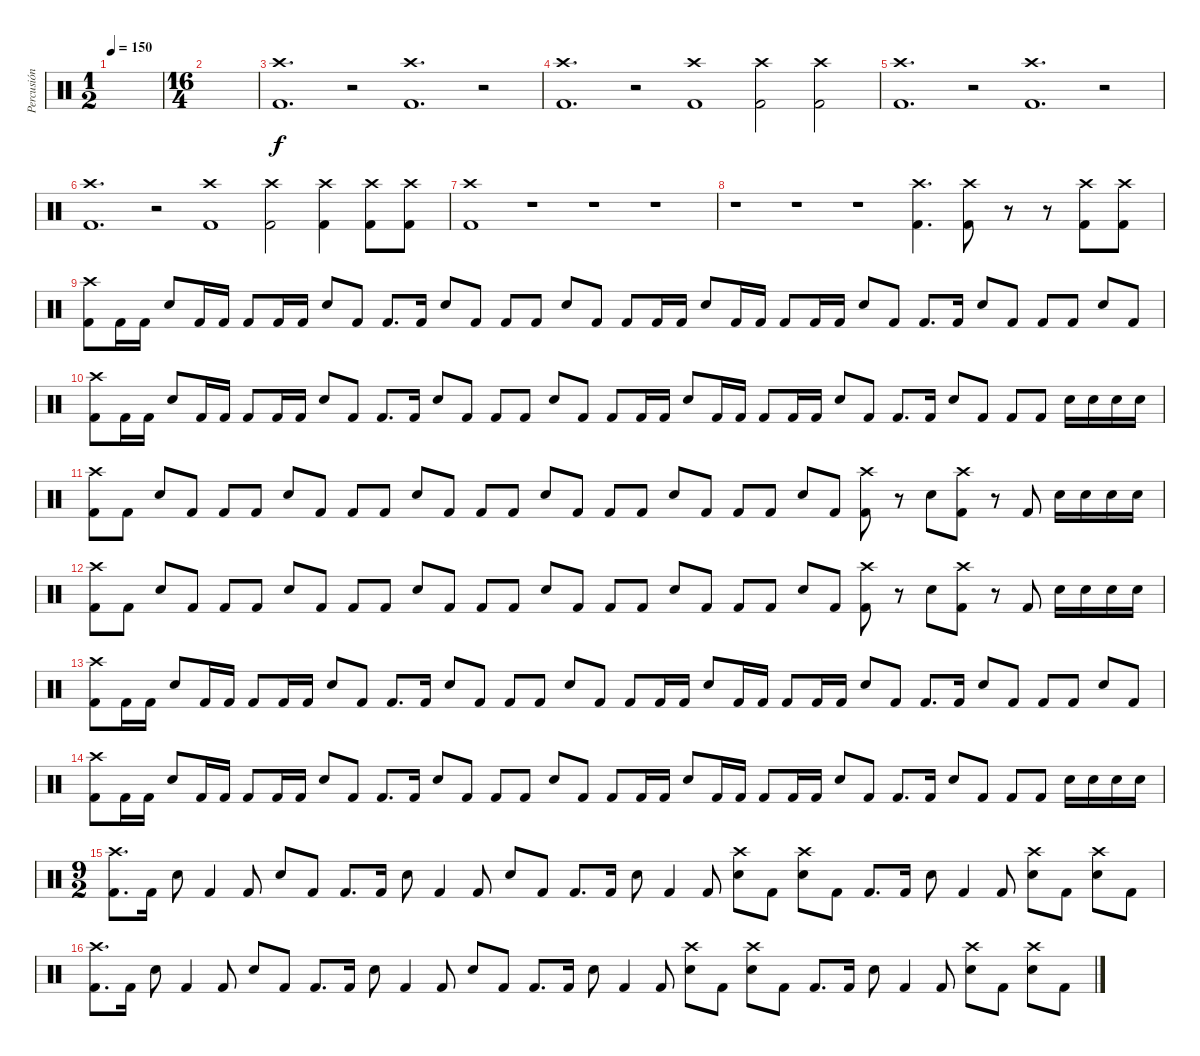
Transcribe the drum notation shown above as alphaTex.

\track ("Percusión" "Percusión") {instrument percussion bank 10}
\staff {score}
\articulation defaults
\ts (1 2)
\tempo 150
\clef neutral
\ks c
|
\ts (16 4)
|
("Kick (hit) 2" "Crash high (hit)").1{d} r.2 ("Kick (hit) 2" "Crash high (hit)").1{d} r.2 |
("Kick (hit) 2" "Crash high (hit)").1{d} r.2 ("Kick (hit) 2" "Crash high (hit)").1 ("Kick (hit) 2" "Crash high (hit)").2 ("Kick (hit) 2" "Crash high (hit)").2 |
("Kick (hit) 2" "Crash high (hit)").1{d} r.2 ("Kick (hit) 2" "Crash high (hit)").1{d} r.2 |
("Kick (hit) 2" "Crash high (hit)").1{d} r.2 ("Kick (hit) 2" "Crash high (hit)").1 ("Kick (hit) 2" "Crash high (hit)").2 ("Kick (hit) 2" "Crash high (hit)").4 ("Kick (hit) 2" "Crash high (hit)").8 ("Kick (hit) 2" "Crash high (hit)").8 |
("Kick (hit) 2" "Crash high (hit)").1 r.1 r.1 r.1 |
r.1 r.1 r.1 ("Kick (hit) 2" "Crash high (hit)").4{d} ("Kick (hit) 2" "Crash high (hit)").8 r.8 r.8 ("Kick (hit) 2" "Crash high (hit)").8 ("Kick (hit) 2" "Crash high (hit)").8 |
("Kick (hit) 2" "Crash high (hit)").8 "Kick (hit) 2".16 "Kick (hit) 2".16 "Snare (hit) 2".8 "Kick (hit) 2".16 "Kick (hit) 2".16 "Kick (hit) 2".8 "Kick (hit) 2".16 "Kick (hit) 2".16 "Snare (hit) 2".8 "Kick (hit) 2".8 "Kick (hit) 2".8{d} "Kick (hit) 2".16 "Snare (hit) 2".8 "Kick (hit) 2".8 "Kick (hit) 2".8 "Kick (hit) 2".8 "Snare (hit) 2".8 "Kick (hit) 2".8 "Kick (hit) 2".8 "Kick (hit) 2".16 "Kick (hit) 2".16 "Snare (hit) 2".8 "Kick (hit) 2".16 "Kick (hit) 2".16 "Kick (hit) 2".8 "Kick (hit) 2".16 "Kick (hit) 2".16 "Snare (hit) 2".8 "Kick (hit) 2".8 "Kick (hit) 2".8{d} "Kick (hit) 2".16 "Snare (hit) 2".8 "Kick (hit) 2".8 "Kick (hit) 2".8 "Kick (hit) 2".8 "Snare (hit) 2".8 "Kick (hit) 2".8 |
("Kick (hit) 2" "Crash high (hit)").8 "Kick (hit) 2".16 "Kick (hit) 2".16 "Snare (hit) 2".8 "Kick (hit) 2".16 "Kick (hit) 2".16 "Kick (hit) 2".8 "Kick (hit) 2".16 "Kick (hit) 2".16 "Snare (hit) 2".8 "Kick (hit) 2".8 "Kick (hit) 2".8{d} "Kick (hit) 2".16 "Snare (hit) 2".8 "Kick (hit) 2".8 "Kick (hit) 2".8 "Kick (hit) 2".8 "Snare (hit) 2".8 "Kick (hit) 2".8 "Kick (hit) 2".8 "Kick (hit) 2".16 "Kick (hit) 2".16 "Snare (hit) 2".8 "Kick (hit) 2".16 "Kick (hit) 2".16 "Kick (hit) 2".8 "Kick (hit) 2".16 "Kick (hit) 2".16 "Snare (hit) 2".8 "Kick (hit) 2".8 "Kick (hit) 2".8{d} "Kick (hit) 2".16 "Snare (hit) 2".8 "Kick (hit) 2".8 "Kick (hit) 2".8 "Kick (hit) 2".8 "Snare (hit) 2".16 "Snare (hit) 2".16 "Snare (hit) 2".16 "Snare (hit) 2".16 |
("Kick (hit) 2" "Crash high (hit)").8 "Kick (hit) 2".8 "Snare (hit) 2".8 "Kick (hit) 2".8 "Kick (hit) 2".8 "Kick (hit) 2".8 "Snare (hit) 2".8 "Kick (hit) 2".8 "Kick (hit) 2".8 "Kick (hit) 2".8 "Snare (hit) 2".8 "Kick (hit) 2".8 "Kick (hit) 2".8 "Kick (hit) 2".8 "Snare (hit) 2".8 "Kick (hit) 2".8 "Kick (hit) 2".8 "Kick (hit) 2".8 "Snare (hit) 2".8 "Kick (hit) 2".8 "Kick (hit) 2".8 "Kick (hit) 2".8 "Snare (hit) 2".8 "Kick (hit) 2".8 ("Kick (hit) 2" "Crash high (hit)").8 r.8 "Snare (hit) 2".8 ("Kick (hit) 2" "Crash high (hit)").8 r.8 "Kick (hit) 2".8 "Snare (hit) 2".16 "Snare (hit) 2".16 "Snare (hit) 2".16 "Snare (hit) 2".16 |
("Kick (hit) 2" "Crash high (hit)").8 "Kick (hit) 2".8 "Snare (hit) 2".8 "Kick (hit) 2".8 "Kick (hit) 2".8 "Kick (hit) 2".8 "Snare (hit) 2".8 "Kick (hit) 2".8 "Kick (hit) 2".8 "Kick (hit) 2".8 "Snare (hit) 2".8 "Kick (hit) 2".8 "Kick (hit) 2".8 "Kick (hit) 2".8 "Snare (hit) 2".8 "Kick (hit) 2".8 "Kick (hit) 2".8 "Kick (hit) 2".8 "Snare (hit) 2".8 "Kick (hit) 2".8 "Kick (hit) 2".8 "Kick (hit) 2".8 "Snare (hit) 2".8 "Kick (hit) 2".8 ("Kick (hit) 2" "Crash high (hit)").8 r.8 "Snare (hit) 2".8 ("Kick (hit) 2" "Crash high (hit)").8 r.8 "Kick (hit) 2".8 "Snare (hit) 2".16 "Snare (hit) 2".16 "Snare (hit) 2".16 "Snare (hit) 2".16 |
("Kick (hit) 2" "Crash high (hit)").8 "Kick (hit) 2".16 "Kick (hit) 2".16 "Snare (hit) 2".8 "Kick (hit) 2".16 "Kick (hit) 2".16 "Kick (hit) 2".8 "Kick (hit) 2".16 "Kick (hit) 2".16 "Snare (hit) 2".8 "Kick (hit) 2".8 "Kick (hit) 2".8{d} "Kick (hit) 2".16 "Snare (hit) 2".8 "Kick (hit) 2".8 "Kick (hit) 2".8 "Kick (hit) 2".8 "Snare (hit) 2".8 "Kick (hit) 2".8 "Kick (hit) 2".8 "Kick (hit) 2".16 "Kick (hit) 2".16 "Snare (hit) 2".8 "Kick (hit) 2".16 "Kick (hit) 2".16 "Kick (hit) 2".8 "Kick (hit) 2".16 "Kick (hit) 2".16 "Snare (hit) 2".8 "Kick (hit) 2".8 "Kick (hit) 2".8{d} "Kick (hit) 2".16 "Snare (hit) 2".8 "Kick (hit) 2".8 "Kick (hit) 2".8 "Kick (hit) 2".8 "Snare (hit) 2".8 "Kick (hit) 2".8 |
("Kick (hit) 2" "Crash high (hit)").8 "Kick (hit) 2".16 "Kick (hit) 2".16 "Snare (hit) 2".8 "Kick (hit) 2".16 "Kick (hit) 2".16 "Kick (hit) 2".8 "Kick (hit) 2".16 "Kick (hit) 2".16 "Snare (hit) 2".8 "Kick (hit) 2".8 "Kick (hit) 2".8{d} "Kick (hit) 2".16 "Snare (hit) 2".8 "Kick (hit) 2".8 "Kick (hit) 2".8 "Kick (hit) 2".8 "Snare (hit) 2".8 "Kick (hit) 2".8 "Kick (hit) 2".8 "Kick (hit) 2".16 "Kick (hit) 2".16 "Snare (hit) 2".8 "Kick (hit) 2".16 "Kick (hit) 2".16 "Kick (hit) 2".8 "Kick (hit) 2".16 "Kick (hit) 2".16 "Snare (hit) 2".8 "Kick (hit) 2".8 "Kick (hit) 2".8{d} "Kick (hit) 2".16 "Snare (hit) 2".8 "Kick (hit) 2".8 "Kick (hit) 2".8 "Kick (hit) 2".8 "Snare (hit) 2".16 "Snare (hit) 2".16 "Snare (hit) 2".16 "Snare (hit) 2".16 |
\ts (9 2)
("Kick (hit) 2" "Crash high (hit)").8{d} "Kick (hit) 2".16 "Snare (hit) 2".8 "Kick (hit) 2".4 "Kick (hit) 2".8 "Snare (hit) 2".8 "Kick (hit) 2".8 "Kick (hit) 2".8{d} "Kick (hit) 2".16 "Snare (hit) 2".8 "Kick (hit) 2".4 "Kick (hit) 2".8 "Snare (hit) 2".8 "Kick (hit) 2".8 "Kick (hit) 2".8{d} "Kick (hit) 2".16 "Snare (hit) 2".8 "Kick (hit) 2".4 "Kick (hit) 2".8 ("Snare (hit) 2" "Crash high (hit)").8 "Kick (hit) 2".8 ("Snare (hit) 2" "Crash high (hit)").8 "Kick (hit) 2".8 "Kick (hit) 2".8{d} "Kick (hit) 2".16 "Snare (hit) 2".8 "Kick (hit) 2".4 "Kick (hit) 2".8 ("Snare (hit) 2" "Crash high (hit)").8 "Kick (hit) 2".8 ("Snare (hit) 2" "Crash high (hit)").8 "Kick (hit) 2".8 |
("Kick (hit) 2" "Crash high (hit)").8{d} "Kick (hit) 2".16 "Snare (hit) 2".8 "Kick (hit) 2".4 "Kick (hit) 2".8 "Snare (hit) 2".8 "Kick (hit) 2".8 "Kick (hit) 2".8{d} "Kick (hit) 2".16 "Snare (hit) 2".8 "Kick (hit) 2".4 "Kick (hit) 2".8 "Snare (hit) 2".8 "Kick (hit) 2".8 "Kick (hit) 2".8{d} "Kick (hit) 2".16 "Snare (hit) 2".8 "Kick (hit) 2".4 "Kick (hit) 2".8 ("Snare (hit) 2" "Crash high (hit)").8 "Kick (hit) 2".8 ("Snare (hit) 2" "Crash high (hit)").8 "Kick (hit) 2".8 "Kick (hit) 2".8{d} "Kick (hit) 2".16 "Snare (hit) 2".8 "Kick (hit) 2".4 "Kick (hit) 2".8 ("Snare (hit) 2" "Crash high (hit)").8 "Kick (hit) 2".8 ("Snare (hit) 2" "Crash high (hit)").8 "Kick (hit) 2".8
